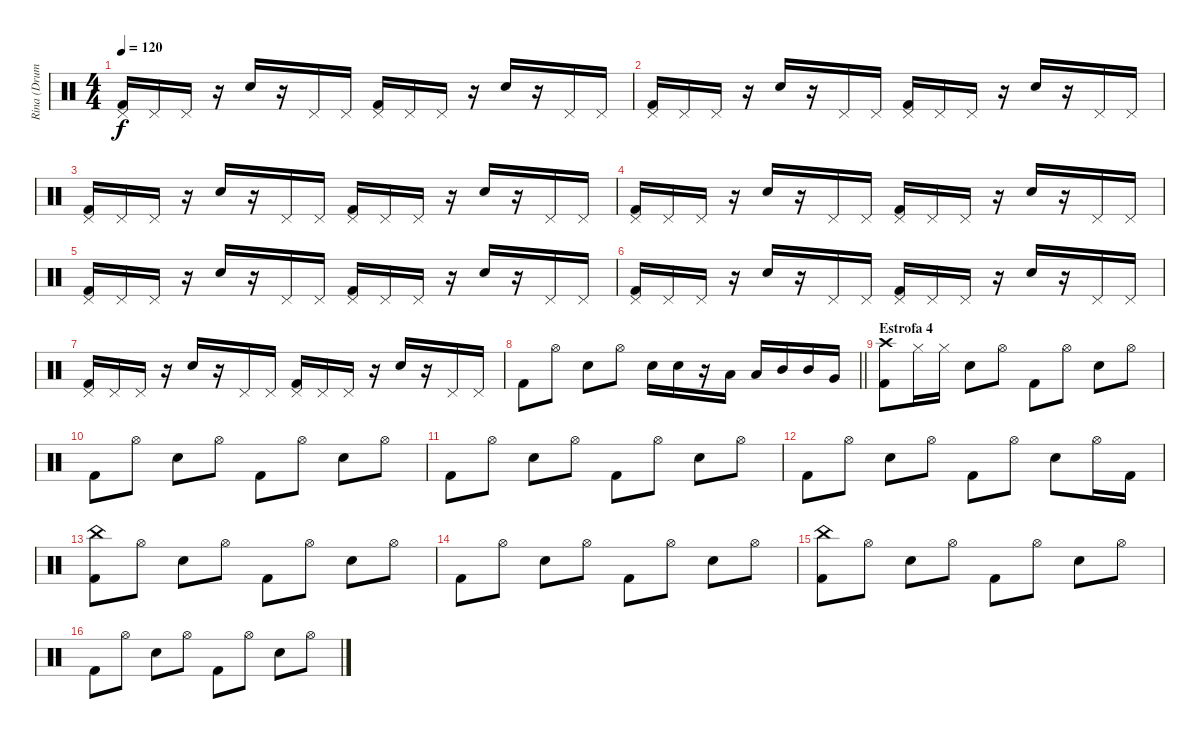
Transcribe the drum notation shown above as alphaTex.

\track ("Rina (Drums)" "Rina (Drum") {instrument percussion}
\staff {score}
\articulation defaults
\ts (4 4)
\tempo 120
\clef neutral
\ks c
("Pedal Hi-Hat (hit)" "Kick (hit) 2").16{dy f} "Pedal Hi-Hat (hit)".16 "Pedal Hi-Hat (hit)".16 r.16 "Snare (hit) 2".16 r.16 "Pedal Hi-Hat (hit)".16 "Pedal Hi-Hat (hit)".16 ("Pedal Hi-Hat (hit)" "Kick (hit) 2").16 "Pedal Hi-Hat (hit)".16 "Pedal Hi-Hat (hit)".16 r.16 "Snare (hit) 2".16 r.16 "Pedal Hi-Hat (hit)".16 "Pedal Hi-Hat (hit)".16 |
("Pedal Hi-Hat (hit)" "Kick (hit) 2").16 "Pedal Hi-Hat (hit)".16 "Pedal Hi-Hat (hit)".16 r.16 "Snare (hit) 2".16 r.16 "Pedal Hi-Hat (hit)".16 "Pedal Hi-Hat (hit)".16 ("Pedal Hi-Hat (hit)" "Kick (hit) 2").16 "Pedal Hi-Hat (hit)".16 "Pedal Hi-Hat (hit)".16 r.16 "Snare (hit) 2".16 r.16 "Pedal Hi-Hat (hit)".16 "Pedal Hi-Hat (hit)".16 |
("Pedal Hi-Hat (hit)" "Kick (hit) 2").16 "Pedal Hi-Hat (hit)".16 "Pedal Hi-Hat (hit)".16 r.16 "Snare (hit) 2".16 r.16 "Pedal Hi-Hat (hit)".16 "Pedal Hi-Hat (hit)".16 ("Pedal Hi-Hat (hit)" "Kick (hit) 2").16 "Pedal Hi-Hat (hit)".16 "Pedal Hi-Hat (hit)".16 r.16 "Snare (hit) 2".16 r.16 "Pedal Hi-Hat (hit)".16 "Pedal Hi-Hat (hit)".16 |
("Pedal Hi-Hat (hit)" "Kick (hit) 2").16 "Pedal Hi-Hat (hit)".16 "Pedal Hi-Hat (hit)".16 r.16 "Snare (hit) 2".16 r.16 "Pedal Hi-Hat (hit)".16 "Pedal Hi-Hat (hit)".16 ("Pedal Hi-Hat (hit)" "Kick (hit) 2").16 "Pedal Hi-Hat (hit)".16 "Pedal Hi-Hat (hit)".16 r.16 "Snare (hit) 2".16 r.16 "Pedal Hi-Hat (hit)".16 "Pedal Hi-Hat (hit)".16 |
("Pedal Hi-Hat (hit)" "Kick (hit) 2").16 "Pedal Hi-Hat (hit)".16 "Pedal Hi-Hat (hit)".16 r.16 "Snare (hit) 2".16 r.16 "Pedal Hi-Hat (hit)".16 "Pedal Hi-Hat (hit)".16 ("Pedal Hi-Hat (hit)" "Kick (hit) 2").16 "Pedal Hi-Hat (hit)".16 "Pedal Hi-Hat (hit)".16 r.16 "Snare (hit) 2".16 r.16 "Pedal Hi-Hat (hit)".16 "Pedal Hi-Hat (hit)".16 |
("Pedal Hi-Hat (hit)" "Kick (hit) 2").16 "Pedal Hi-Hat (hit)".16 "Pedal Hi-Hat (hit)".16 r.16 "Snare (hit) 2".16 r.16 "Pedal Hi-Hat (hit)".16 "Pedal Hi-Hat (hit)".16 ("Pedal Hi-Hat (hit)" "Kick (hit) 2").16 "Pedal Hi-Hat (hit)".16 "Pedal Hi-Hat (hit)".16 r.16 "Snare (hit) 2".16 r.16 "Pedal Hi-Hat (hit)".16 "Pedal Hi-Hat (hit)".16 |
("Pedal Hi-Hat (hit)" "Kick (hit) 2").16 "Pedal Hi-Hat (hit)".16 "Pedal Hi-Hat (hit)".16 r.16 "Snare (hit) 2".16 r.16 "Pedal Hi-Hat (hit)".16 "Pedal Hi-Hat (hit)".16 ("Pedal Hi-Hat (hit)" "Kick (hit) 2").16 "Pedal Hi-Hat (hit)".16 "Pedal Hi-Hat (hit)".16 r.16 "Snare (hit) 2".16 r.16 "Pedal Hi-Hat (hit)".16 "Pedal Hi-Hat (hit)".16 |
\barLineRight lightlight "Kick (hit) 2".8 "Hi-Hat (open)".8 "Snare (hit) 2".8 "Hi-Hat (open)".8 "Snare (hit) 2".16 "Snare (hit) 2".16
r.16 "Low Tom (hit)".16 "Low Tom (hit)".16 "Mid Tom (hit)".16 "Mid Tom (hit)".16 "Very Low Tom (hit)".16 |
\section ("" "Estrofa 4")
("Crash high (hit)" "Kick (hit) 2").8 "Hi-Hat (closed)".16 "Hi-Hat (closed)".16 "Snare (hit) 2".8 "Hi-Hat (open)".8 "Kick (hit) 2".8 "Hi-Hat (open)".8 "Snare (hit) 2".8 "Hi-Hat (open)".8 |
"Kick (hit) 2".8 "Hi-Hat (open)".8 "Snare (hit) 2".8 "Hi-Hat (open)".8 "Kick (hit) 2".8 "Hi-Hat (open)".8 "Snare (hit) 2".8 "Hi-Hat (open)".8 |
"Kick (hit) 2".8 "Hi-Hat (open)".8 "Snare (hit) 2".8 "Hi-Hat (open)".8 "Kick (hit) 2".8 "Hi-Hat (open)".8 "Snare (hit) 2".8 "Hi-Hat (open)".8 |
"Kick (hit) 2".8 "Hi-Hat (open)".8 "Snare (hit) 2".8 "Hi-Hat (open)".8 "Kick (hit) 2".8 "Hi-Hat (open)".8 "Snare (hit) 2".8 "Hi-Hat (open)".16 "Kick (hit) 2".16 |
("China (hit)" "Kick (hit) 2").8 "Hi-Hat (open)".8 "Snare (hit) 2".8 "Hi-Hat (open)".8 "Kick (hit) 2".8 "Hi-Hat (open)".8 "Snare (hit) 2".8 "Hi-Hat (open)".8 |
"Kick (hit) 2".8 "Hi-Hat (open)".8 "Snare (hit) 2".8 "Hi-Hat (open)".8 "Kick (hit) 2".8 "Hi-Hat (open)".8 "Snare (hit) 2".8 "Hi-Hat (open)".8 |
("China (hit)" "Kick (hit) 2").8 "Hi-Hat (open)".8 "Snare (hit) 2".8 "Hi-Hat (open)".8 "Kick (hit) 2".8 "Hi-Hat (open)".8 "Snare (hit) 2".8 "Hi-Hat (open)".8 |
"Kick (hit) 2".8 "Hi-Hat (open)".8 "Snare (hit) 2".8 "Hi-Hat (open)".8 "Kick (hit) 2".8 "Hi-Hat (open)".8 "Snare (hit) 2".8 "Hi-Hat (open)".8
